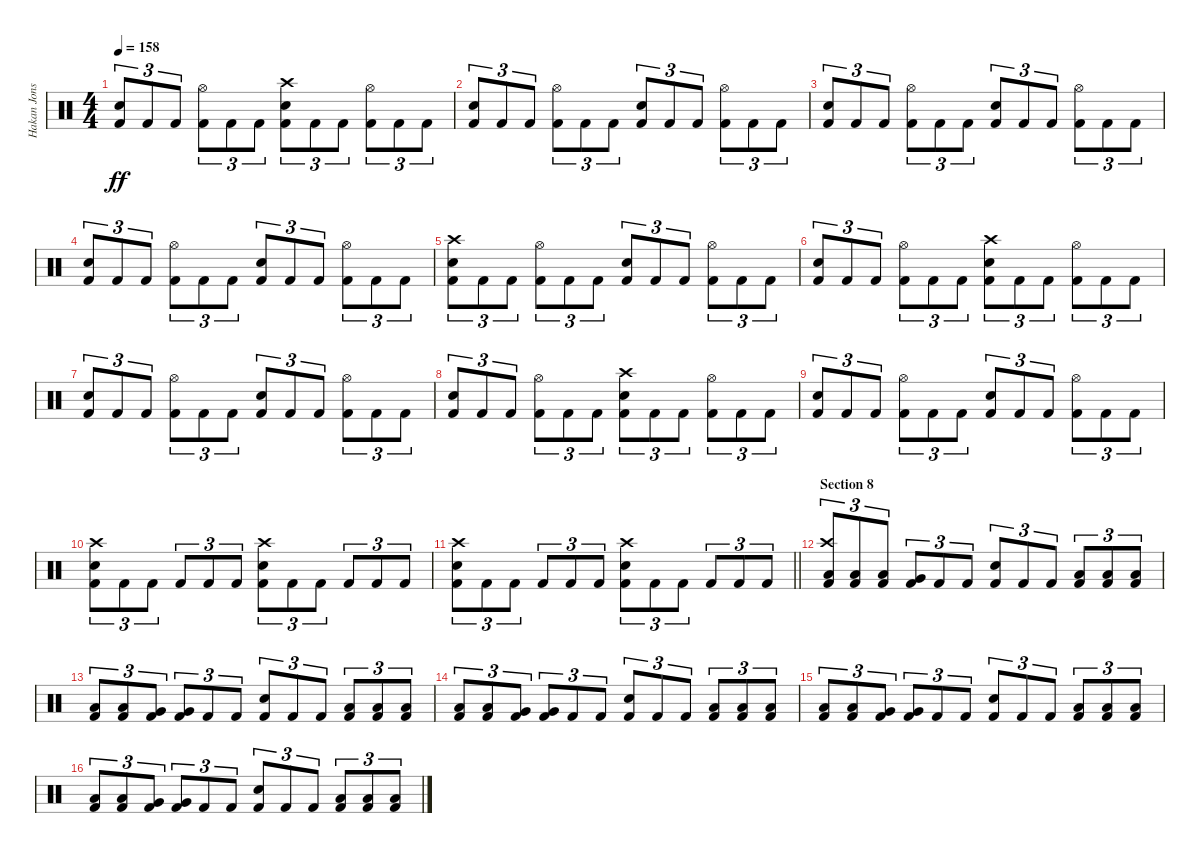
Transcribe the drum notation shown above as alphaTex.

\track ("Hakan Jonsson" "Hakan Jons") {instrument percussion}
\staff {score}
\articulation defaults
\ts (4 4)
\tempo 158
\clef neutral
\ks c
("Electric Snare (hit)" "Kick (hit) 2").8{tu (3 2) dy ff} "Kick (hit) 2".8{tu (3 2)} "Kick (hit) 2".8{tu (3 2)} ("Hi-Hat (open)" "Kick (hit) 2").8{tu (3 2)} "Kick (hit) 2".8{tu (3 2)} "Kick (hit) 2".8{tu (3 2)} ("Crash high (hit)" "Electric Snare (hit)" "Kick (hit) 2").8{tu (3 2)} "Kick (hit) 2".8{tu (3 2)} "Kick (hit) 2".8{tu (3 2)} ("Hi-Hat (open)" "Kick (hit) 2").8{tu (3 2)} "Kick (hit) 2".8{tu (3 2)} "Kick (hit) 2".8{tu (3 2)} |
("Electric Snare (hit)" "Kick (hit) 2").8{tu (3 2)} "Kick (hit) 2".8{tu (3 2)} "Kick (hit) 2".8{tu (3 2)} ("Hi-Hat (open)" "Kick (hit) 2").8{tu (3 2)} "Kick (hit) 2".8{tu (3 2)} "Kick (hit) 2".8{tu (3 2)} ("Electric Snare (hit)" "Kick (hit) 2").8{tu (3 2)} "Kick (hit) 2".8{tu (3 2)} "Kick (hit) 2".8{tu (3 2)} ("Hi-Hat (open)" "Kick (hit) 2").8{tu (3 2)} "Kick (hit) 2".8{tu (3 2)} "Kick (hit) 2".8{tu (3 2)} |
("Electric Snare (hit)" "Kick (hit) 2").8{tu (3 2)} "Kick (hit) 2".8{tu (3 2)} "Kick (hit) 2".8{tu (3 2)} ("Hi-Hat (open)" "Kick (hit) 2").8{tu (3 2)} "Kick (hit) 2".8{tu (3 2)} "Kick (hit) 2".8{tu (3 2)} ("Electric Snare (hit)" "Kick (hit) 2").8{tu (3 2)} "Kick (hit) 2".8{tu (3 2)} "Kick (hit) 2".8{tu (3 2)} ("Hi-Hat (open)" "Kick (hit) 2").8{tu (3 2)} "Kick (hit) 2".8{tu (3 2)} "Kick (hit) 2".8{tu (3 2)} |
("Electric Snare (hit)" "Kick (hit) 2").8{tu (3 2)} "Kick (hit) 2".8{tu (3 2)} "Kick (hit) 2".8{tu (3 2)} ("Hi-Hat (open)" "Kick (hit) 2").8{tu (3 2)} "Kick (hit) 2".8{tu (3 2)} "Kick (hit) 2".8{tu (3 2)} ("Electric Snare (hit)" "Kick (hit) 2").8{tu (3 2)} "Kick (hit) 2".8{tu (3 2)} "Kick (hit) 2".8{tu (3 2)} ("Hi-Hat (open)" "Kick (hit) 2").8{tu (3 2)} "Kick (hit) 2".8{tu (3 2)} "Kick (hit) 2".8{tu (3 2)} |
("Crash high (hit)" "Electric Snare (hit)" "Kick (hit) 2").8{tu (3 2)} "Kick (hit) 2".8{tu (3 2)} "Kick (hit) 2".8{tu (3 2)} ("Hi-Hat (open)" "Kick (hit) 2").8{tu (3 2)} "Kick (hit) 2".8{tu (3 2)} "Kick (hit) 2".8{tu (3 2)} ("Electric Snare (hit)" "Kick (hit) 2").8{tu (3 2)} "Kick (hit) 2".8{tu (3 2)} "Kick (hit) 2".8{tu (3 2)} ("Hi-Hat (open)" "Kick (hit) 2").8{tu (3 2)} "Kick (hit) 2".8{tu (3 2)} "Kick (hit) 2".8{tu (3 2)} |
("Electric Snare (hit)" "Kick (hit) 2").8{tu (3 2)} "Kick (hit) 2".8{tu (3 2)} "Kick (hit) 2".8{tu (3 2)} ("Hi-Hat (open)" "Kick (hit) 2").8{tu (3 2)} "Kick (hit) 2".8{tu (3 2)} "Kick (hit) 2".8{tu (3 2)} ("Crash high (hit)" "Electric Snare (hit)" "Kick (hit) 2").8{tu (3 2)} "Kick (hit) 2".8{tu (3 2)} "Kick (hit) 2".8{tu (3 2)} ("Hi-Hat (open)" "Kick (hit) 2").8{tu (3 2)} "Kick (hit) 2".8{tu (3 2)} "Kick (hit) 2".8{tu (3 2)} |
("Electric Snare (hit)" "Kick (hit) 2").8{tu (3 2)} "Kick (hit) 2".8{tu (3 2)} "Kick (hit) 2".8{tu (3 2)} ("Hi-Hat (open)" "Kick (hit) 2").8{tu (3 2)} "Kick (hit) 2".8{tu (3 2)} "Kick (hit) 2".8{tu (3 2)} ("Electric Snare (hit)" "Kick (hit) 2").8{tu (3 2)} "Kick (hit) 2".8{tu (3 2)} "Kick (hit) 2".8{tu (3 2)} ("Hi-Hat (open)" "Kick (hit) 2").8{tu (3 2)} "Kick (hit) 2".8{tu (3 2)} "Kick (hit) 2".8{tu (3 2)} |
("Electric Snare (hit)" "Kick (hit) 2").8{tu (3 2)} "Kick (hit) 2".8{tu (3 2)} "Kick (hit) 2".8{tu (3 2)} ("Hi-Hat (open)" "Kick (hit) 2").8{tu (3 2)} "Kick (hit) 2".8{tu (3 2)} "Kick (hit) 2".8{tu (3 2)} ("Crash high (hit)" "Electric Snare (hit)" "Kick (hit) 2").8{tu (3 2)} "Kick (hit) 2".8{tu (3 2)} "Kick (hit) 2".8{tu (3 2)} ("Hi-Hat (open)" "Kick (hit) 2").8{tu (3 2)} "Kick (hit) 2".8{tu (3 2)} "Kick (hit) 2".8{tu (3 2)} |
("Electric Snare (hit)" "Kick (hit) 2").8{tu (3 2)} "Kick (hit) 2".8{tu (3 2)} "Kick (hit) 2".8{tu (3 2)} ("Hi-Hat (open)" "Kick (hit) 2").8{tu (3 2)} "Kick (hit) 2".8{tu (3 2)} "Kick (hit) 2".8{tu (3 2)} ("Electric Snare (hit)" "Kick (hit) 2").8{tu (3 2)} "Kick (hit) 2".8{tu (3 2)} "Kick (hit) 2".8{tu (3 2)} ("Hi-Hat (open)" "Kick (hit) 2").8{tu (3 2)} "Kick (hit) 2".8{tu (3 2)} "Kick (hit) 2".8{tu (3 2)} |
("Crash high (hit)" "Electric Snare (hit)" "Kick (hit) 2").8{tu (3 2)} "Kick (hit) 2".8{tu (3 2)} "Kick (hit) 2".8{tu (3 2)} "Kick (hit) 2".8{tu (3 2)} "Kick (hit) 2".8{tu (3 2)} "Kick (hit) 2".8{tu (3 2)} ("Crash high (hit)" "Electric Snare (hit)" "Kick (hit) 2").8{tu (3 2)} "Kick (hit) 2".8{tu (3 2)} "Kick (hit) 2".8{tu (3 2)} "Kick (hit) 2".8{tu (3 2)} "Kick (hit) 2".8{tu (3 2)} "Kick (hit) 2".8{tu (3 2)} |
\barLineRight lightlight
("Crash high (hit)" "Electric Snare (hit)" "Kick (hit) 2").8{tu (3 2)} "Kick (hit) 2".8{tu (3 2)} "Kick (hit) 2".8{tu (3 2)} "Kick (hit) 2".8{tu (3 2)} "Kick (hit) 2".8{tu (3 2)} "Kick (hit) 2".8{tu (3 2)} ("Crash high (hit)" "Electric Snare (hit)" "Kick (hit) 2").8{tu (3 2)} "Kick (hit) 2".8{tu (3 2)} "Kick (hit) 2".8{tu (3 2)} "Kick (hit) 2".8{tu (3 2)} "Kick (hit) 2".8{tu (3 2)} "Kick (hit) 2".8{tu (3 2)} |
\section ("" "Section 8")
("Crash high (hit)" "Low Tom (hit)" "Kick (hit) 2").8{tu (3 2)} ("Low Tom (hit)" "Kick (hit) 2").8{tu (3 2)} ("Low Tom (hit)" "Kick (hit) 2").8{tu (3 2)} ("Very Low Tom (hit)" "Kick (hit) 2").8{tu (3 2)} "Kick (hit) 2".8{tu (3 2)} "Kick (hit) 2".8{tu (3 2)} ("Electric Snare (hit)" "Kick (hit) 2").8{tu (3 2)} "Kick (hit) 2".8{tu (3 2)} "Kick (hit) 2".8{tu (3 2)} ("Low Tom (hit)" "Kick (hit) 2").8{tu (3 2)} ("Low Tom (hit)" "Kick (hit) 2").8{tu (3 2)} ("Low Tom (hit)" "Kick (hit) 2").8{tu (3 2)} |
("Low Tom (hit)" "Kick (hit) 2").8{tu (3 2)} ("Low Tom (hit)" "Kick (hit) 2").8{tu (3 2)} ("Very Low Tom (hit)" "Kick (hit) 2").8{tu (3 2)} ("Very Low Tom (hit)" "Kick (hit) 2").8{tu (3 2)} "Kick (hit) 2".8{tu (3 2)} "Kick (hit) 2".8{tu (3 2)} ("Electric Snare (hit)" "Kick (hit) 2").8{tu (3 2)} "Kick (hit) 2".8{tu (3 2)} "Kick (hit) 2".8{tu (3 2)} ("Low Tom (hit)" "Kick (hit) 2").8{tu (3 2)} ("Low Tom (hit)" "Kick (hit) 2").8{tu (3 2)} ("Low Tom (hit)" "Kick (hit) 2").8{tu (3 2)} |
("Low Tom (hit)" "Kick (hit) 2").8{tu (3 2)} ("Low Tom (hit)" "Kick (hit) 2").8{tu (3 2)} ("Very Low Tom (hit)" "Kick (hit) 2").8{tu (3 2)} ("Very Low Tom (hit)" "Kick (hit) 2").8{tu (3 2)} "Kick (hit) 2".8{tu (3 2)} "Kick (hit) 2".8{tu (3 2)} ("Electric Snare (hit)" "Kick (hit) 2").8{tu (3 2)} "Kick (hit) 2".8{tu (3 2)} "Kick (hit) 2".8{tu (3 2)} ("Low Tom (hit)" "Kick (hit) 2").8{tu (3 2)} ("Low Tom (hit)" "Kick (hit) 2").8{tu (3 2)} ("Low Tom (hit)" "Kick (hit) 2").8{tu (3 2)} |
("Low Tom (hit)" "Kick (hit) 2").8{tu (3 2)} ("Low Tom (hit)" "Kick (hit) 2").8{tu (3 2)} ("Very Low Tom (hit)" "Kick (hit) 2").8{tu (3 2)} ("Very Low Tom (hit)" "Kick (hit) 2").8{tu (3 2)} "Kick (hit) 2".8{tu (3 2)} "Kick (hit) 2".8{tu (3 2)} ("Electric Snare (hit)" "Kick (hit) 2").8{tu (3 2)} "Kick (hit) 2".8{tu (3 2)} "Kick (hit) 2".8{tu (3 2)} ("Low Tom (hit)" "Kick (hit) 2").8{tu (3 2)} ("Low Tom (hit)" "Kick (hit) 2").8{tu (3 2)} ("Low Tom (hit)" "Kick (hit) 2").8{tu (3 2)} |
("Low Tom (hit)" "Kick (hit) 2").8{tu (3 2)} ("Low Tom (hit)" "Kick (hit) 2").8{tu (3 2)} ("Very Low Tom (hit)" "Kick (hit) 2").8{tu (3 2)} ("Very Low Tom (hit)" "Kick (hit) 2").8{tu (3 2)} "Kick (hit) 2".8{tu (3 2)} "Kick (hit) 2".8{tu (3 2)} ("Electric Snare (hit)" "Kick (hit) 2").8{tu (3 2)} "Kick (hit) 2".8{tu (3 2)} "Kick (hit) 2".8{tu (3 2)} ("Low Tom (hit)" "Kick (hit) 2").8{tu (3 2)} ("Low Tom (hit)" "Kick (hit) 2").8{tu (3 2)} ("Low Tom (hit)" "Kick (hit) 2").8{tu (3 2)}
